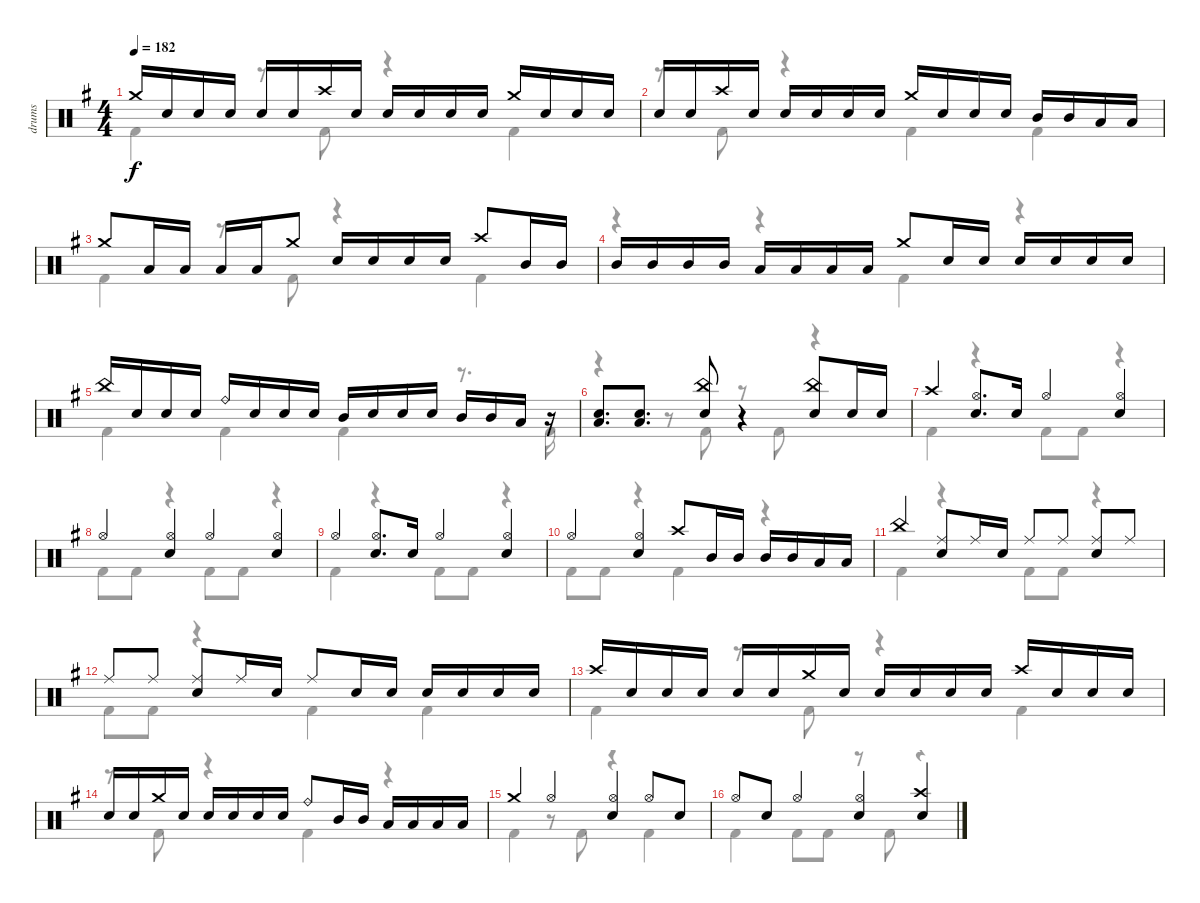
\track ("drums" "drums") {instrument percussion}
\staff {score}
\articulation defaults
\voice
\ts (4 4)
\tempo 182
\clef neutral
\ks g "Crash medium (hit)".16{dy f} "Snare (hit) 2".16 "Snare (hit) 2".16 "Snare (hit) 2".16 "Snare (hit) 2".16 "Snare (hit) 2".16 "Crash high (hit)".16 "Snare (hit) 2".16 "Snare (hit) 2".16 "Snare (hit) 2".16 "Snare (hit) 2".16 "Snare (hit) 2".16 "Crash medium (hit)".16 "Snare (hit) 2".16 "Snare (hit) 2".16 "Snare (hit) 2".16
|
"Snare (hit) 2".16 "Snare (hit) 2".16 "Crash high (hit)".16 "Snare (hit) 2".16 "Snare (hit) 2".16 "Snare (hit) 2".16 "Snare (hit) 2".16 "Snare (hit) 2".16 "Crash medium (hit)".16 "Snare (hit) 2".16 "Snare (hit) 2".16 "Snare (hit) 2".16 "Mid Tom (hit)".16 "Mid Tom (hit)".16 "Low Tom (hit)".16 "Low Tom (hit)".16 |
"Crash medium (hit)".8 "Low Tom (hit)".16 "Low Tom (hit)".16 "Low Floor Tom (hit)".16 "Low Floor Tom (hit)".16 "Crash medium (hit)".8 "Snare (hit) 2".16 "Snare (hit) 2".16 "Snare (hit) 2".16 "Snare (hit) 2".16 "Crash high (hit)".8 "Mid Tom (hit)".16 "Mid Tom (hit)".16 |
"Mid Tom (hit)".16 "Mid Tom (hit)".16 "Mid Tom (hit)".16 "Mid Tom (hit)".16 "Low Tom (hit)".16 "Low Tom (hit)".16 "Low Tom (hit)".16 "Low Tom (hit)".16 "Crash medium (hit)".8 "Snare (hit) 2".16 "Snare (hit) 2".16 "Snare (hit) 2".16 "Snare (hit) 2".16 "Snare (hit) 2".16 "Snare (hit) 2".16 |
"China (hit)".16 "Snare (hit) 2".16 "Snare (hit) 2".16 "Snare (hit) 2".16 "Ride (bell)".16 "Snare (hit) 2".16 "Snare (hit) 2".16 "Snare (hit) 2".16 "Mid Tom (hit)".16 "Snare (hit) 2".16 "Snare (hit) 2".16 "Snare (hit) 2".16 "Mid Tom (hit)".16 "Mid Tom (hit)".16 "Low Tom (hit)".16 r.16 |
("Snare (hit) 2" "Low Floor Tom (hit)").8{d} ("Snare (hit) 2" "Low Floor Tom (hit)").8{d} ("China (hit)" "Snare (hit) 2").8 r.4 ("China (hit)" "Snare (hit) 2").8 "Snare (hit) 2".16 "Snare (hit) 2".16 |
"Crash high (hit)".4 ("Hi-Hat (open)" "Snare (hit) 2").8{d} "Snare (hit) 2".16 "Hi-Hat (open)".4 ("Hi-Hat (open)" "Snare (hit) 2").4 |
"Hi-Hat (open)".4 ("Hi-Hat (open)" "Snare (hit) 2").4 "Hi-Hat (open)".4 ("Hi-Hat (open)" "Snare (hit) 2").4 |
"Hi-Hat (open)".4 ("Hi-Hat (open)" "Snare (hit) 2").8{d} "Snare (hit) 2".16 "Hi-Hat (open)".4 ("Hi-Hat (open)" "Snare (hit) 2").4 |
"Hi-Hat (open)".4 ("Hi-Hat (open)" "Snare (hit) 2").4 "Crash high (hit)".8 "Mid Tom (hit)".16 "Mid Tom (hit)".16 "Mid Tom (hit)".16 "Mid Tom (hit)".16 "Low Tom (hit)".16 "Low Tom (hit)".16 |
"China (hit)".4 ("Ride (middle)" "Snare (hit) 2").8 "Ride (middle)".16 "Snare (hit) 2".16 "Ride (middle)".8 "Ride (middle)".8 ("Ride (middle)" "Snare (hit) 2").8 "Ride (middle)".8 |
"Ride (middle)".8 "Ride (middle)".8 ("Ride (middle)" "Snare (hit) 2").8 "Ride (middle)".16 "Snare (hit) 2".16 "Ride (middle)".8 "Snare (hit) 2".16 "Snare (hit) 2".16 "Snare (hit) 2".16 "Snare (hit) 2".16 "Snare (hit) 2".16 "Snare (hit) 2".16 |
"Crash high (hit)".16 "Snare (hit) 2".16 "Snare (hit) 2".16 "Snare (hit) 2".16 "Snare (hit) 2".16 "Snare (hit) 2".16 "Crash medium (hit)".16 "Snare (hit) 2".16 "Snare (hit) 2".16 "Snare (hit) 2".16 "Snare (hit) 2".16 "Snare (hit) 2".16 "Crash high (hit)".16 "Snare (hit) 2".16 "Snare (hit) 2".16 "Snare (hit) 2".16 |
"Snare (hit) 2".16 "Snare (hit) 2".16 "Crash medium (hit)".16 "Snare (hit) 2".16 "Snare (hit) 2".16 "Snare (hit) 2".16 "Snare (hit) 2".16 "Snare (hit) 2".16 "Ride (bell)".8 "Mid Tom (hit)".16 "Mid Tom (hit)".16 "Low Tom (hit)".16 "Low Tom (hit)".16 "Low Floor Tom (hit)".16 "Low Floor Tom (hit)".16 |
"Crash medium (hit)".4 "Hi-Hat (open)".4 ("Hi-Hat (open)" "Snare (hit) 2").4 "Hi-Hat (open)".8 "Snare (hit) 2".8 |
"Hi-Hat (open)".8 "Snare (hit) 2".8 "Hi-Hat (open)".4 ("Hi-Hat (open)" "Snare (hit) 2").4 ("Crash high (hit)" "Snare (hit) 2").4
\voice
\clef neutral
\ottava regular
\simile none
\ks g "Kick (hit) 2".4{dy f}
r.8 "Kick (hit) 2".8 r.4 "Kick (hit) 2".4 |
r.8 "Kick (hit) 2".8 r.4 "Kick (hit) 2".4 "Kick (hit) 2".4 |
"Kick (hit) 2".4 r.8 "Kick (hit) 2".8 r.4 "Kick (hit) 2".4 |
r.4 r.4 "Kick (hit) 2".4 r.4 |
"Kick (hit) 2".4 "Kick (hit) 2".4 "Kick (hit) 2".4 r.8{d} "Kick (hit) 2".16 |
r.4 r.8 "Kick (hit) 2".8 r.8 "Kick (hit) 2".8 r.4 |
"Kick (hit) 2".4 r.4 "Kick (hit) 2".8 "Kick (hit) 2".8 r.4 |
"Kick (hit) 2".8 "Kick (hit) 2".8 r.4 "Kick (hit) 2".8 "Kick (hit) 2".8 r.4 |
"Kick (hit) 2".4 r.4 "Kick (hit) 2".8 "Kick (hit) 2".8 r.4 |
"Kick (hit) 2".8 "Kick (hit) 2".8 r.4 "Kick (hit) 2".4 r.4 |
"Kick (hit) 2".4 r.4 "Kick (hit) 2".8 "Kick (hit) 2".8 r.4 |
"Kick (hit) 2".8 "Kick (hit) 2".8 r.4 "Kick (hit) 2".4 "Kick (hit) 2".4 |
"Kick (hit) 2".4 r.8 "Kick (hit) 2".8 r.4 "Kick (hit) 2".4 |
r.8 "Kick (hit) 2".8 r.4 "Kick (hit) 2".4 r.4 |
"Kick (hit) 2".4 r.8 "Kick (hit) 2".8 r.4 "Kick (hit) 2".4 |
"Kick (hit) 2".4 "Kick (hit) 2".8 "Kick (hit) 2".8 r.8 "Kick (hit) 2".8 r.4
